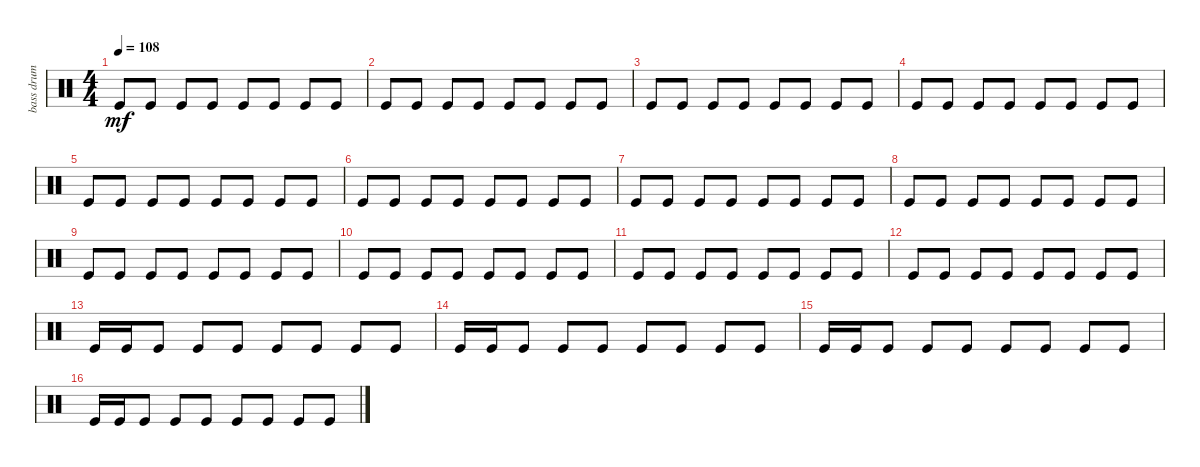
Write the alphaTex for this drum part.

\track ("bass drum           " "bass drum ") {instrument percussion}
\staff {score}
\articulation defaults
\ts (4 4)
\tempo 108
\clef neutral
\ks c "Kick (hit)".8{dy mf} "Kick (hit)".8 "Kick (hit)".8 "Kick (hit)".8 "Kick (hit)".8 "Kick (hit)".8 "Kick (hit)".8 "Kick (hit)".8
|
"Kick (hit)".8 "Kick (hit)".8 "Kick (hit)".8 "Kick (hit)".8 "Kick (hit)".8 "Kick (hit)".8 "Kick (hit)".8 "Kick (hit)".8 |
"Kick (hit)".8 "Kick (hit)".8 "Kick (hit)".8 "Kick (hit)".8 "Kick (hit)".8 "Kick (hit)".8 "Kick (hit)".8 "Kick (hit)".8 |
"Kick (hit)".8 "Kick (hit)".8 "Kick (hit)".8 "Kick (hit)".8 "Kick (hit)".8 "Kick (hit)".8 "Kick (hit)".8 "Kick (hit)".8 |
"Kick (hit)".8 "Kick (hit)".8 "Kick (hit)".8 "Kick (hit)".8 "Kick (hit)".8 "Kick (hit)".8 "Kick (hit)".8 "Kick (hit)".8 |
"Kick (hit)".8 "Kick (hit)".8 "Kick (hit)".8 "Kick (hit)".8 "Kick (hit)".8 "Kick (hit)".8 "Kick (hit)".8 "Kick (hit)".8 |
"Kick (hit)".8 "Kick (hit)".8 "Kick (hit)".8 "Kick (hit)".8 "Kick (hit)".8 "Kick (hit)".8 "Kick (hit)".8 "Kick (hit)".8 |
"Kick (hit)".8 "Kick (hit)".8 "Kick (hit)".8 "Kick (hit)".8 "Kick (hit)".8 "Kick (hit)".8 "Kick (hit)".8 "Kick (hit)".8 |
"Kick (hit)".8 "Kick (hit)".8 "Kick (hit)".8 "Kick (hit)".8 "Kick (hit)".8 "Kick (hit)".8 "Kick (hit)".8 "Kick (hit)".8 |
"Kick (hit)".8 "Kick (hit)".8 "Kick (hit)".8 "Kick (hit)".8 "Kick (hit)".8 "Kick (hit)".8 "Kick (hit)".8 "Kick (hit)".8 |
"Kick (hit)".8 "Kick (hit)".8 "Kick (hit)".8 "Kick (hit)".8 "Kick (hit)".8 "Kick (hit)".8 "Kick (hit)".8 "Kick (hit)".8 |
"Kick (hit)".8 "Kick (hit)".8 "Kick (hit)".8 "Kick (hit)".8 "Kick (hit)".8 "Kick (hit)".8 "Kick (hit)".8 "Kick (hit)".8 |
"Kick (hit)".16 "Kick (hit)".16 "Kick (hit)".8 "Kick (hit)".8 "Kick (hit)".8 "Kick (hit)".8 "Kick (hit)".8 "Kick (hit)".8 "Kick (hit)".8 |
"Kick (hit)".16 "Kick (hit)".16 "Kick (hit)".8 "Kick (hit)".8 "Kick (hit)".8 "Kick (hit)".8 "Kick (hit)".8 "Kick (hit)".8 "Kick (hit)".8 |
"Kick (hit)".16 "Kick (hit)".16 "Kick (hit)".8 "Kick (hit)".8 "Kick (hit)".8 "Kick (hit)".8 "Kick (hit)".8 "Kick (hit)".8 "Kick (hit)".8 |
"Kick (hit)".16 "Kick (hit)".16 "Kick (hit)".8 "Kick (hit)".8 "Kick (hit)".8 "Kick (hit)".8 "Kick (hit)".8 "Kick (hit)".8 "Kick (hit)".8
